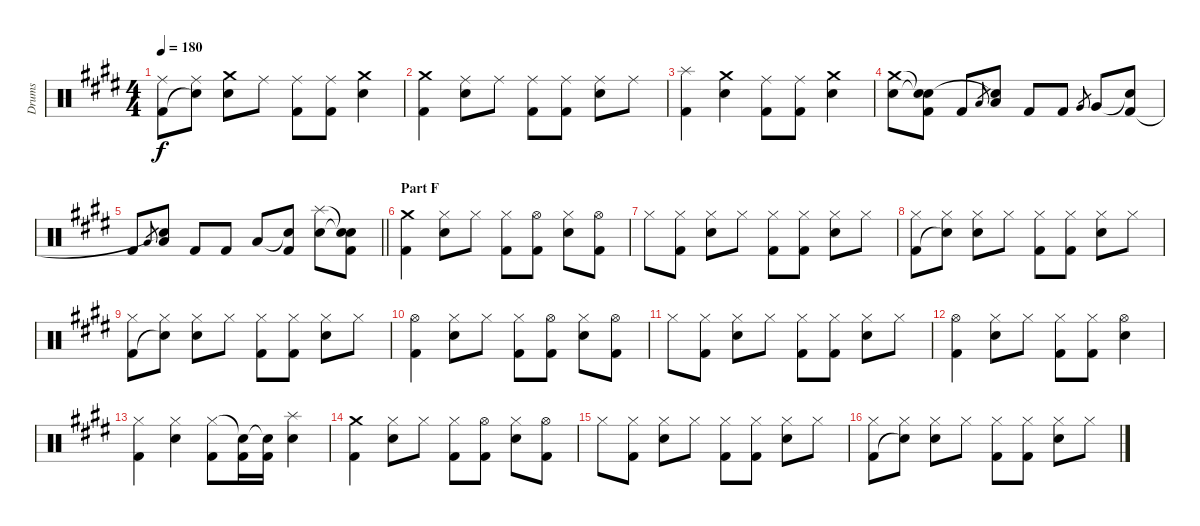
\track ("Drums" "Drums") {instrument percussion}
\staff {score}
\articulation defaults
\ts (4 4)
\tempo 180
\clef neutral
\ks e
("Ride (middle)" "Kick (hit) 2").8{dy f} ("Ride (middle)" "Snare (hit)"{t}).8 ("Crash medium (hit)" "Electric Snare (hit)").8 "Ride (middle)".8 ("Ride (middle)" "Kick (hit) 2").8 ("Ride (middle)" "Kick (hit) 2").8 ("Crash medium (hit)" "Electric Snare (hit)").4 |
("Crash medium (hit)" "Kick (hit) 2").4 ("Ride (middle)" "Electric Snare (hit)").8 "Ride (middle)".8 ("Ride (middle)" "Kick (hit) 2").8 ("Ride (middle)" "Kick (hit) 2").8 ("Ride (middle)" "Electric Snare (hit)").8 "Ride (middle)".8 |
("Splash (hit)" "Kick (hit) 2").4 ("Crash medium (hit)" "Electric Snare (hit)").4 ("Ride (middle)" "Kick (hit) 2").8 ("Ride (middle)" "Kick (hit) 2").8 ("Crash medium (hit)" "Electric Snare (hit)").4 |
("Crash medium (hit)" "Electric Snare (hit)").8 ("Snare (hit)"{t} "Snare (hit)"{t} "Kick (hit) 2").8 "Kick (hit) 2".8 "Low Tom (hit)".8{gr} ("Low Tom (hit)" "Snare (hit)"{t}).8 "Kick (hit) 2".8 "Kick (hit) 2".8 "Very Low Tom (hit)".8{gr} "Very Low Tom (hit)".8 ("Snare (hit)"{t} "Kick (hit) 2").8 |
\barLineRight lightlight "Kick (hit) 2".8 "Low Floor Tom (hit)".8{gr}
("Low Floor Tom (hit)" "Snare (hit)"{t}).8 "Kick (hit) 2".8 "Kick (hit) 2".8 "Low Floor Tom (hit)".8 ("Snare (hit)"{t} "Kick (hit) 2").8 ("Splash (hit)" "Electric Snare (hit)").8 ("Snare (hit)"{t} "Snare (hit)"{t} "Kick (hit) 2").8 |
\section ("" "Part F")
("Crash medium (hit)" "Kick (hit) 2").4 ("Hi-Hat (closed)" "Electric Snare (hit)").8 "Hi-Hat (closed)".8 ("Hi-Hat (closed)" "Kick (hit) 2").8 ("Hi-Hat (open)" "Kick (hit) 2").8 ("Hi-Hat (closed)" "Electric Snare (hit)").8 ("Hi-Hat (open)" "Kick (hit) 2").8 |
"Hi-Hat (closed)".8 ("Hi-Hat (closed)" "Kick (hit) 2").8 ("Hi-Hat (closed)" "Electric Snare (hit)").8 "Hi-Hat (closed)".8 ("Hi-Hat (closed)" "Kick (hit) 2").8 ("Hi-Hat (closed)" "Kick (hit) 2").8 ("Hi-Hat (closed)" "Electric Snare (hit)").8 "Hi-Hat (closed)".8 |
("Hi-Hat (closed)" "Kick (hit) 2").8 ("Hi-Hat (closed)" "Snare (hit)"{t}).8 ("Hi-Hat (closed)" "Electric Snare (hit)").8 "Hi-Hat (closed)".8 ("Hi-Hat (closed)" "Kick (hit) 2").8 ("Hi-Hat (closed)" "Kick (hit) 2").8 ("Hi-Hat (closed)" "Electric Snare (hit)").8 "Hi-Hat (closed)".8 |
("Hi-Hat (closed)" "Kick (hit) 2").8 ("Hi-Hat (closed)" "Snare (hit)"{t}).8 ("Hi-Hat (closed)" "Electric Snare (hit)").8 "Hi-Hat (closed)".8 ("Hi-Hat (closed)" "Kick (hit) 2").8 ("Hi-Hat (closed)" "Kick (hit) 2").8 ("Hi-Hat (closed)" "Electric Snare (hit)").8 "Hi-Hat (closed)".8 |
("Hi-Hat (open)" "Kick (hit) 2").4 ("Hi-Hat (closed)" "Electric Snare (hit)").8 "Hi-Hat (closed)".8 ("Hi-Hat (closed)" "Kick (hit) 2").8 ("Hi-Hat (open)" "Kick (hit) 2").8 ("Hi-Hat (closed)" "Electric Snare (hit)").8 ("Hi-Hat (open)" "Kick (hit) 2").8 |
"Hi-Hat (closed)".8 ("Hi-Hat (closed)" "Kick (hit) 2").8 ("Hi-Hat (closed)" "Electric Snare (hit)").8 "Hi-Hat (closed)".8 ("Hi-Hat (closed)" "Kick (hit) 2").8 ("Hi-Hat (closed)" "Kick (hit) 2").8 ("Hi-Hat (closed)" "Electric Snare (hit)").8 "Hi-Hat (closed)".8 |
("Hi-Hat (open)" "Kick (hit) 2").4 ("Hi-Hat (closed)" "Electric Snare (hit)").8 "Hi-Hat (closed)".8 ("Hi-Hat (closed)" "Kick (hit) 2").8 ("Hi-Hat (closed)" "Kick (hit) 2").8 ("Hi-Hat (open)" "Electric Snare (hit)").4 |
("Hi-Hat (closed)" "Kick (hit) 2").4 ("Hi-Hat (closed)" "Electric Snare (hit)").4 ("Hi-Hat (closed)" "Kick (hit) 2").8 ("Snare (hit)"{t} "Kick (hit) 2").16 ("Snare (hit)"{t} "Kick (hit) 2").16 ("Splash (hit)" "Electric Snare (hit)").4 |
("Crash medium (hit)" "Kick (hit) 2").4 ("Hi-Hat (closed)" "Electric Snare (hit)").8 "Hi-Hat (closed)".8 ("Hi-Hat (closed)" "Kick (hit) 2").8 ("Hi-Hat (open)" "Kick (hit) 2").8 ("Hi-Hat (closed)" "Electric Snare (hit)").8 ("Hi-Hat (open)" "Kick (hit) 2").8 |
"Hi-Hat (closed)".8 ("Hi-Hat (closed)" "Kick (hit) 2").8 ("Hi-Hat (closed)" "Electric Snare (hit)").8 "Hi-Hat (closed)".8 ("Hi-Hat (closed)" "Kick (hit) 2").8 ("Hi-Hat (closed)" "Kick (hit) 2").8 ("Hi-Hat (closed)" "Electric Snare (hit)").8 "Hi-Hat (closed)".8 |
("Hi-Hat (closed)" "Kick (hit) 2").8 ("Hi-Hat (closed)" "Snare (hit)"{t}).8 ("Hi-Hat (closed)" "Electric Snare (hit)").8 "Hi-Hat (closed)".8 ("Hi-Hat (closed)" "Kick (hit) 2").8 ("Hi-Hat (closed)" "Kick (hit) 2").8 ("Hi-Hat (closed)" "Electric Snare (hit)").8 "Hi-Hat (closed)".8
